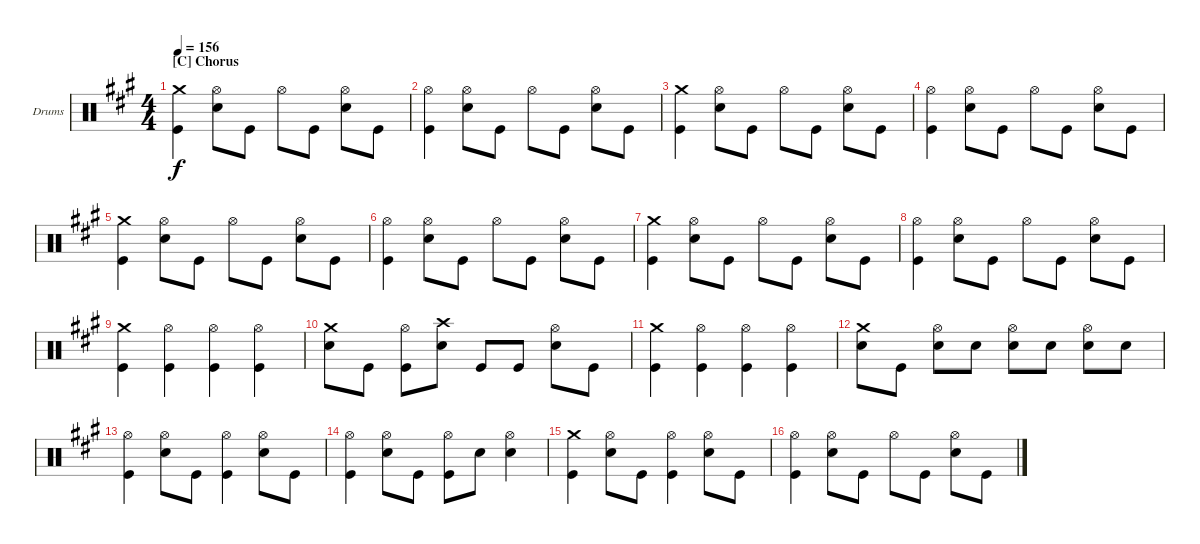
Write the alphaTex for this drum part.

\defaultSystemsLayout 4
\bracketExtendMode groupsimilarinstruments
\firstSystemTrackNameOrientation horizontal
\otherSystemsTrackNameOrientation horizontal
\track ("Drumkit" "Drums") {instrument percussion}
\staff {score}
\articulation defaults
\ts (4 4)
\section ("C" "Chorus")
\tempo 156
\clef neutral
\scale
0.973518
\ks a
("Kick (hit)" "Crash medium (hit)").4{dy f} ("Snare (hit) 2" "Hi-Hat (open)").8 "Kick (hit)".8 "Hi-Hat (open)".8 "Kick (hit)".8 ("Snare (hit) 2" "Hi-Hat (open)").8 "Kick (hit)".8 |
\scale
0.973518 ("Kick (hit)" "Hi-Hat (open)").4 ("Snare (hit) 2" "Hi-Hat (open)").8 "Kick (hit)".8 "Hi-Hat (open)".8 "Kick (hit)".8 ("Snare (hit) 2" "Hi-Hat (open)").8 "Kick (hit)".8 |
\scale
1.05296 ("Kick (hit)" "Crash medium (hit)").4 ("Snare (hit) 2" "Hi-Hat (open)").8 "Kick (hit)".8 "Hi-Hat (open)".8 "Kick (hit)".8 ("Snare (hit) 2" "Hi-Hat (open)").8 "Kick (hit)".8 |
\scale
0.973518 ("Kick (hit)" "Hi-Hat (open)").4 ("Snare (hit) 2" "Hi-Hat (open)").8 "Kick (hit)".8 "Hi-Hat (open)".8 "Kick (hit)".8 ("Snare (hit) 2" "Hi-Hat (open)").8 "Kick (hit)".8 |
\scale
0.973518 ("Kick (hit)" "Crash medium (hit)").4 ("Snare (hit) 2" "Hi-Hat (open)").8 "Kick (hit)".8 "Hi-Hat (open)".8 "Kick (hit)".8 ("Snare (hit) 2" "Hi-Hat (open)").8 "Kick (hit)".8 |
\scale
1.05296 ("Kick (hit)" "Hi-Hat (open)").4 ("Snare (hit) 2" "Hi-Hat (open)").8 "Kick (hit)".8 "Hi-Hat (open)".8 "Kick (hit)".8 ("Snare (hit) 2" "Hi-Hat (open)").8 "Kick (hit)".8 |
\scale
0.973518 ("Kick (hit)" "Crash medium (hit)").4 ("Snare (hit) 2" "Hi-Hat (open)").8 "Kick (hit)".8 "Hi-Hat (open)".8 "Kick (hit)".8 ("Snare (hit) 2" "Hi-Hat (open)").8 "Kick (hit)".8 |
\scale
0.973518 ("Kick (hit)" "Hi-Hat (open)").4 ("Snare (hit) 2" "Hi-Hat (open)").8 "Kick (hit)".8 "Hi-Hat (open)".8 "Kick (hit)".8 ("Snare (hit) 2" "Hi-Hat (open)").8 "Kick (hit)".8 |
\scale
1.05296 ("Kick (hit)" "Crash medium (hit)").4 ("Kick (hit)" "Hi-Hat (open)").4 ("Kick (hit)" "Hi-Hat (open)").4 ("Kick (hit)" "Hi-Hat (open)").4 |
\scale
0.973518 ("Snare (hit) 2" "Crash medium (hit)").8 "Kick (hit)".8 ("Kick (hit)" "Hi-Hat (open)").8 ("Snare (hit) 2" "Crash high (hit)").8 "Kick (hit)".8 "Kick (hit)".8 ("Snare (hit) 2" "Hi-Hat (open)").8 "Kick (hit)".8 |
\scale
0.973518 ("Kick (hit)" "Crash medium (hit)").4 ("Kick (hit)" "Hi-Hat (open)").4 ("Kick (hit)" "Hi-Hat (open)").4 ("Kick (hit)" "Hi-Hat (open)").4 |
\scale
1.05296 ("Snare (hit) 2" "Crash medium (hit)").8 "Kick (hit)".8 ("Snare (hit) 2" "Hi-Hat (open)").8 "Snare (hit) 2".8 ("Snare (hit) 2" "Hi-Hat (open)").8 "Snare (hit) 2".8 ("Snare (hit) 2" "Hi-Hat (open)").8 "Snare (hit) 2".8 |
\scale
0.973518 ("Hi-Hat (open)" "Kick (hit)").4 ("Hi-Hat (open)" "Snare (hit) 2").8 "Kick (hit)".8 ("Hi-Hat (open)" "Kick (hit)").4 ("Hi-Hat (open)" "Snare (hit) 2").8 "Kick (hit)".8 |
\scale
0.973518 ("Hi-Hat (open)" "Kick (hit)").4 ("Hi-Hat (open)" "Snare (hit) 2").8 "Kick (hit)".8 ("Hi-Hat (open)" "Kick (hit)").8 "Snare (hit) 2".8 ("Hi-Hat (open)" "Snare (hit) 2").4 |
\scale
1.05296 ("Crash medium (hit)" "Kick (hit)").4 ("Hi-Hat (open)" "Snare (hit) 2").8 "Kick (hit)".8 ("Hi-Hat (open)" "Kick (hit)").4 ("Hi-Hat (open)" "Snare (hit) 2").8 "Kick (hit)".8 |
\scale
0.973518 ("Hi-Hat (open)" "Kick (hit)").4 ("Hi-Hat (open)" "Snare (hit) 2").8 "Kick (hit)".8 "Hi-Hat (open)".8 "Kick (hit)".8 ("Hi-Hat (open)" "Snare (hit) 2").8 "Kick (hit)".8
